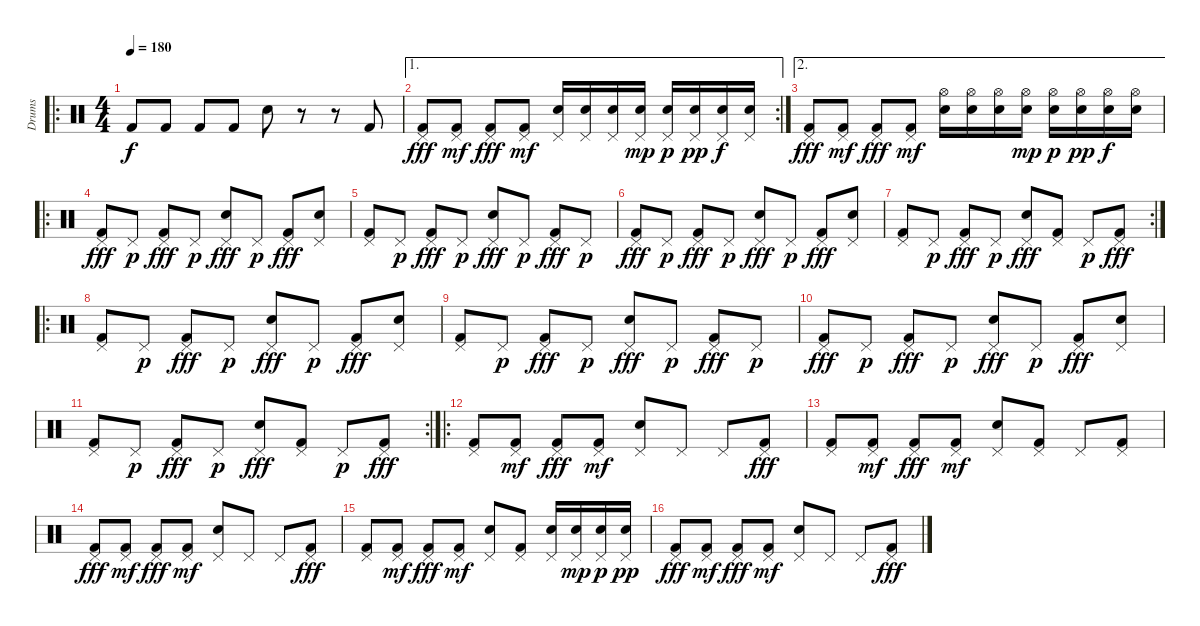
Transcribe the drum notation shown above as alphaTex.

\track ("Drums" "Drums") {instrument percussion}
\staff {score}
\articulation defaults
\ro
\ts (4 4)
\tempo 180
\clef neutral
\ks c "Kick (hit) 2".8{dy f} "Kick (hit) 2".8 "Kick (hit) 2".8 "Kick (hit) 2".8 "Electric Snare (hit)".8
r.8 r.8 "Kick (hit) 2".8 |
\ae 1
\rc 2
("Pedal Hi-Hat (hit)" "Kick (hit) 2").8{dy fff} ("Pedal Hi-Hat (hit)" "Kick (hit) 2").8{dy mf} ("Pedal Hi-Hat (hit)" "Kick (hit) 2").8{dy fff} ("Pedal Hi-Hat (hit)" "Kick (hit) 2").8{dy mf} ("Pedal Hi-Hat (hit)" "Electric Snare (hit)").16 ("Pedal Hi-Hat (hit)" "Electric Snare (hit)").16 ("Pedal Hi-Hat (hit)" "Electric Snare (hit)").16 ("Pedal Hi-Hat (hit)" "Electric Snare (hit)").16{dy mp} ("Pedal Hi-Hat (hit)" "Electric Snare (hit)").16{dy p} ("Pedal Hi-Hat (hit)" "Electric Snare (hit)").16{dy pp} ("Pedal Hi-Hat (hit)" "Electric Snare (hit)").16{dy f} ("Pedal Hi-Hat (hit)" "Electric Snare (hit)").16 |
\ae 2
("Pedal Hi-Hat (hit)" "Kick (hit) 2").8{dy fff} ("Pedal Hi-Hat (hit)" "Kick (hit) 2").8{dy mf} ("Pedal Hi-Hat (hit)" "Kick (hit) 2").8{dy fff} ("Pedal Hi-Hat (hit)" "Kick (hit) 2").8{dy mf} ("Hi-Hat (open)" "Electric Snare (hit)").16 ("Hi-Hat (open)" "Electric Snare (hit)").16 ("Hi-Hat (open)" "Electric Snare (hit)").16 ("Hi-Hat (open)" "Electric Snare (hit)").16{dy mp} ("Hi-Hat (open)" "Electric Snare (hit)").16{dy p} ("Hi-Hat (open)" "Electric Snare (hit)").16{dy pp} ("Hi-Hat (open)" "Electric Snare (hit)").16{dy f} ("Hi-Hat (open)" "Electric Snare (hit)").16 |
\ro
("Pedal Hi-Hat (hit)" "Kick (hit) 2").8{dy fff} "Pedal Hi-Hat (hit)".8{dy p} ("Pedal Hi-Hat (hit)" "Kick (hit) 2").8{dy fff} "Pedal Hi-Hat (hit)".8{dy p} ("Pedal Hi-Hat (hit)" "Electric Snare (hit)").8{dy fff} "Pedal Hi-Hat (hit)".8{dy p} ("Pedal Hi-Hat (hit)" "Kick (hit) 2").8{dy fff} ("Pedal Hi-Hat (hit)" "Electric Snare (hit)").8 |
("Pedal Hi-Hat (hit)" "Kick (hit) 2").8 "Pedal Hi-Hat (hit)".8{dy p} ("Pedal Hi-Hat (hit)" "Kick (hit) 2").8{dy fff} "Pedal Hi-Hat (hit)".8{dy p} ("Pedal Hi-Hat (hit)" "Electric Snare (hit)").8{dy fff} "Pedal Hi-Hat (hit)".8{dy p} ("Pedal Hi-Hat (hit)" "Kick (hit) 2").8{dy fff} "Pedal Hi-Hat (hit)".8{dy p} |
("Pedal Hi-Hat (hit)" "Kick (hit) 2").8{dy fff} "Pedal Hi-Hat (hit)".8{dy p} ("Pedal Hi-Hat (hit)" "Kick (hit) 2").8{dy fff} "Pedal Hi-Hat (hit)".8{dy p} ("Pedal Hi-Hat (hit)" "Electric Snare (hit)").8{dy fff} "Pedal Hi-Hat (hit)".8{dy p} ("Pedal Hi-Hat (hit)" "Kick (hit) 2").8{dy fff} ("Pedal Hi-Hat (hit)" "Electric Snare (hit)").8 |
\rc 2
("Pedal Hi-Hat (hit)" "Kick (hit) 2").8 "Pedal Hi-Hat (hit)".8{dy p} ("Pedal Hi-Hat (hit)" "Kick (hit) 2").8{dy fff} "Pedal Hi-Hat (hit)".8{dy p} ("Pedal Hi-Hat (hit)" "Electric Snare (hit)").8{dy fff} ("Pedal Hi-Hat (hit)" "Kick (hit) 2").8 "Pedal Hi-Hat (hit)".8{dy p} ("Pedal Hi-Hat (hit)" "Kick (hit) 2").8{dy fff} |
\ro
("Pedal Hi-Hat (hit)" "Kick (hit) 2").8 "Pedal Hi-Hat (hit)".8{dy p} ("Pedal Hi-Hat (hit)" "Kick (hit) 2").8{dy fff} "Pedal Hi-Hat (hit)".8{dy p} ("Pedal Hi-Hat (hit)" "Electric Snare (hit)").8{dy fff} "Pedal Hi-Hat (hit)".8{dy p} ("Pedal Hi-Hat (hit)" "Kick (hit) 2").8{dy fff} ("Pedal Hi-Hat (hit)" "Electric Snare (hit)").8 |
("Pedal Hi-Hat (hit)" "Kick (hit) 2").8 "Pedal Hi-Hat (hit)".8{dy p} ("Pedal Hi-Hat (hit)" "Kick (hit) 2").8{dy fff} "Pedal Hi-Hat (hit)".8{dy p} ("Pedal Hi-Hat (hit)" "Electric Snare (hit)").8{dy fff} "Pedal Hi-Hat (hit)".8{dy p} ("Pedal Hi-Hat (hit)" "Kick (hit) 2").8{dy fff} "Pedal Hi-Hat (hit)".8{dy p} |
("Pedal Hi-Hat (hit)" "Kick (hit) 2").8{dy fff} "Pedal Hi-Hat (hit)".8{dy p} ("Pedal Hi-Hat (hit)" "Kick (hit) 2").8{dy fff} "Pedal Hi-Hat (hit)".8{dy p} ("Pedal Hi-Hat (hit)" "Electric Snare (hit)").8{dy fff} "Pedal Hi-Hat (hit)".8{dy p} ("Pedal Hi-Hat (hit)" "Kick (hit) 2").8{dy fff} ("Pedal Hi-Hat (hit)" "Electric Snare (hit)").8 |
\rc 2
("Pedal Hi-Hat (hit)" "Kick (hit) 2").8 "Pedal Hi-Hat (hit)".8{dy p} ("Pedal Hi-Hat (hit)" "Kick (hit) 2").8{dy fff} "Pedal Hi-Hat (hit)".8{dy p} ("Pedal Hi-Hat (hit)" "Electric Snare (hit)").8{dy fff} ("Pedal Hi-Hat (hit)" "Kick (hit) 2").8 "Pedal Hi-Hat (hit)".8{dy p} ("Pedal Hi-Hat (hit)" "Kick (hit) 2").8{dy fff} |
\ro
("Pedal Hi-Hat (hit)" "Kick (hit) 2").8 ("Pedal Hi-Hat (hit)" "Kick (hit) 2").8{dy mf} ("Pedal Hi-Hat (hit)" "Kick (hit) 2").8{dy fff} ("Pedal Hi-Hat (hit)" "Kick (hit) 2").8{dy mf} ("Pedal Hi-Hat (hit)" "Electric Snare (hit)").8 "Pedal Hi-Hat (hit)".8 "Pedal Hi-Hat (hit)".8 ("Pedal Hi-Hat (hit)" "Kick (hit) 2").8{dy fff} |
("Pedal Hi-Hat (hit)" "Kick (hit) 2").8 ("Pedal Hi-Hat (hit)" "Kick (hit) 2").8{dy mf} ("Pedal Hi-Hat (hit)" "Kick (hit) 2").8{dy fff} ("Pedal Hi-Hat (hit)" "Kick (hit) 2").8{dy mf} ("Pedal Hi-Hat (hit)" "Electric Snare (hit)").8 ("Pedal Hi-Hat (hit)" "Kick (hit) 2").8 "Pedal Hi-Hat (hit)".8 ("Pedal Hi-Hat (hit)" "Kick (hit) 2").8 |
("Pedal Hi-Hat (hit)" "Kick (hit) 2").8{dy fff} ("Pedal Hi-Hat (hit)" "Kick (hit) 2").8{dy mf} ("Pedal Hi-Hat (hit)" "Kick (hit) 2").8{dy fff} ("Pedal Hi-Hat (hit)" "Kick (hit) 2").8{dy mf} ("Pedal Hi-Hat (hit)" "Electric Snare (hit)").8 "Pedal Hi-Hat (hit)".8 "Pedal Hi-Hat (hit)".8 ("Pedal Hi-Hat (hit)" "Kick (hit) 2").8{dy fff} |
("Pedal Hi-Hat (hit)" "Kick (hit) 2").8 ("Pedal Hi-Hat (hit)" "Kick (hit) 2").8{dy mf} ("Pedal Hi-Hat (hit)" "Kick (hit) 2").8{dy fff} ("Pedal Hi-Hat (hit)" "Kick (hit) 2").8{dy mf} ("Pedal Hi-Hat (hit)" "Electric Snare (hit)").8 ("Pedal Hi-Hat (hit)" "Kick (hit) 2").8 ("Pedal Hi-Hat (hit)" "Electric Snare (hit)").16 ("Pedal Hi-Hat (hit)" "Electric Snare (hit)").16{dy mp} ("Pedal Hi-Hat (hit)" "Electric Snare (hit)").16{dy p} ("Pedal Hi-Hat (hit)" "Electric Snare (hit)").16{dy pp} |
("Pedal Hi-Hat (hit)" "Kick (hit) 2").8{dy fff} ("Pedal Hi-Hat (hit)" "Kick (hit) 2").8{dy mf} ("Pedal Hi-Hat (hit)" "Kick (hit) 2").8{dy fff} ("Pedal Hi-Hat (hit)" "Kick (hit) 2").8{dy mf} ("Pedal Hi-Hat (hit)" "Electric Snare (hit)").8 "Pedal Hi-Hat (hit)".8 "Pedal Hi-Hat (hit)".8 ("Pedal Hi-Hat (hit)" "Kick (hit) 2").8{dy fff}
